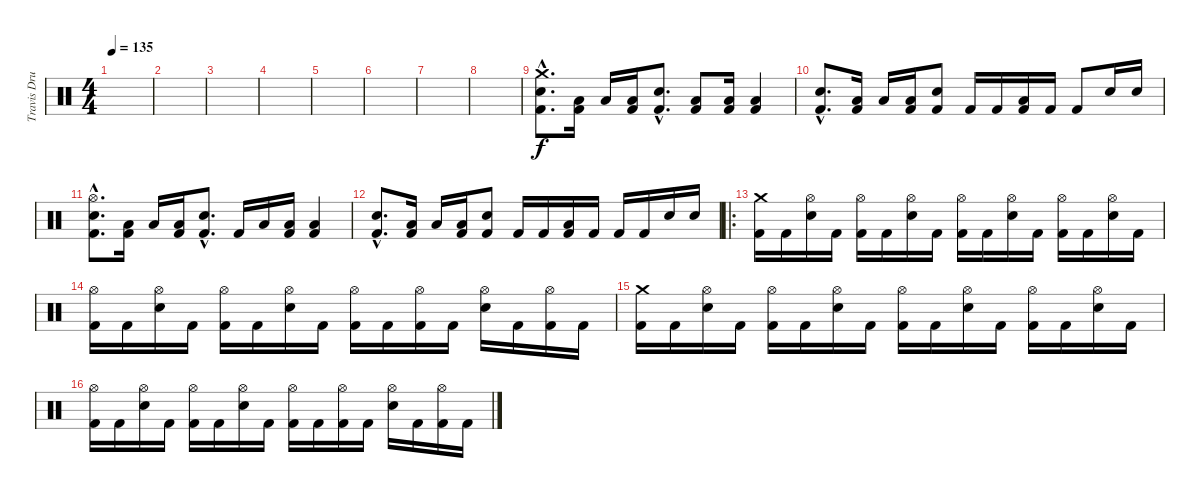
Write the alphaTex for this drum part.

\track ("Travis Drums" "Travis Dru") {instrument percussion}
\staff {score}
\articulation defaults
\ts (4 4)
\tempo 135
\clef neutral
\ks c
|
|
|
|
|
|
|
|
("Crash medium (hit)"{hac} "Electric Snare (hit)"{hac} "Kick (hit) 2"{hac}).8{d} ("Low Floor Tom (hit)" "Kick (hit) 2").16 "Low Floor Tom (hit)".16 ("Low Floor Tom (hit)" "Kick (hit) 2").16 ("Electric Snare (hit)"{hac} "Kick (hit) 2"{hac}).8{d} ("Low Floor Tom (hit)" "Kick (hit) 2").8 ("Low Floor Tom (hit)" "Kick (hit) 2").16 ("Low Floor Tom (hit)" "Kick (hit) 2").4 |
("Electric Snare (hit)"{hac} "Kick (hit) 2"{hac}).8{d} ("Low Floor Tom (hit)" "Kick (hit) 2").16 "Low Floor Tom (hit)".16 ("Low Floor Tom (hit)" "Kick (hit) 2").16 ("Electric Snare (hit)" "Kick (hit) 2").8 "Kick (hit) 2".16 "Kick (hit) 2".16 ("Low Floor Tom (hit)" "Kick (hit) 2").16 "Kick (hit) 2".16 "Kick (hit) 2".8 "Electric Snare (hit)".16 "Electric Snare (hit)".16 |
("Hi-Hat (open)"{hac} "Electric Snare (hit)"{hac} "Kick (hit) 2"{hac}).8{d} ("Low Floor Tom (hit)" "Kick (hit) 2").16 "Low Floor Tom (hit)".16 ("Low Floor Tom (hit)" "Kick (hit) 2").16 ("Electric Snare (hit)"{hac} "Kick (hit) 2"{hac}).8{d} "Kick (hit) 2".16 "Low Floor Tom (hit)".16 ("Low Floor Tom (hit)" "Kick (hit) 2").16 ("Low Floor Tom (hit)" "Kick (hit) 2").4 |
("Electric Snare (hit)"{hac} "Kick (hit) 2"{hac}).8{d} ("Low Floor Tom (hit)" "Kick (hit) 2").16 "Low Floor Tom (hit)".16 ("Low Floor Tom (hit)" "Kick (hit) 2").16 ("Electric Snare (hit)" "Kick (hit) 2").8 "Kick (hit) 2".16 "Kick (hit) 2".16 ("Low Floor Tom (hit)" "Kick (hit) 2").16 "Kick (hit) 2".16 "Kick (hit) 2".16 "Kick (hit) 2".16 "Electric Snare (hit)".16 "Electric Snare (hit)".16 |
\ro
("Crash medium (hit)" "Kick (hit) 2").16 "Kick (hit) 2".16 ("Hi-Hat (open)" "Electric Snare (hit)").16 "Kick (hit) 2".16 ("Hi-Hat (open)" "Kick (hit) 2").16 "Kick (hit) 2".16 ("Hi-Hat (open)" "Electric Snare (hit)").16 "Kick (hit) 2".16 ("Hi-Hat (open)" "Kick (hit) 2").16 "Kick (hit) 2".16 ("Hi-Hat (open)" "Electric Snare (hit)").16 "Kick (hit) 2".16 ("Hi-Hat (open)" "Kick (hit) 2").16 "Kick (hit) 2".16 ("Hi-Hat (open)" "Electric Snare (hit)").16 "Kick (hit) 2".16 |
("Hi-Hat (open)" "Kick (hit) 2").16 "Kick (hit) 2".16 ("Hi-Hat (open)" "Electric Snare (hit)").16 "Kick (hit) 2".16 ("Hi-Hat (open)" "Kick (hit) 2").16 "Kick (hit) 2".16 ("Hi-Hat (open)" "Electric Snare (hit)").16 "Kick (hit) 2".16 ("Hi-Hat (open)" "Kick (hit) 2").16 "Kick (hit) 2".16 ("Hi-Hat (open)" "Kick (hit) 2").16 "Kick (hit) 2".16 ("Hi-Hat (open)" "Electric Snare (hit)").16 "Kick (hit) 2".16 ("Hi-Hat (open)" "Kick (hit) 2").16 "Kick (hit) 2".16 |
("Crash medium (hit)" "Kick (hit) 2").16 "Kick (hit) 2".16 ("Hi-Hat (open)" "Electric Snare (hit)").16 "Kick (hit) 2".16 ("Hi-Hat (open)" "Kick (hit) 2").16 "Kick (hit) 2".16 ("Hi-Hat (open)" "Electric Snare (hit)").16 "Kick (hit) 2".16 ("Hi-Hat (open)" "Kick (hit) 2").16 "Kick (hit) 2".16 ("Hi-Hat (open)" "Electric Snare (hit)").16 "Kick (hit) 2".16 ("Hi-Hat (open)" "Kick (hit) 2").16 "Kick (hit) 2".16 ("Hi-Hat (open)" "Electric Snare (hit)").16 "Kick (hit) 2".16 |
("Hi-Hat (open)" "Kick (hit) 2").16 "Kick (hit) 2".16 ("Hi-Hat (open)" "Electric Snare (hit)").16 "Kick (hit) 2".16 ("Hi-Hat (open)" "Kick (hit) 2").16 "Kick (hit) 2".16 ("Hi-Hat (open)" "Electric Snare (hit)").16 "Kick (hit) 2".16 ("Hi-Hat (open)" "Kick (hit) 2").16 "Kick (hit) 2".16 ("Hi-Hat (open)" "Kick (hit) 2").16 "Kick (hit) 2".16 ("Hi-Hat (open)" "Electric Snare (hit)").16 "Kick (hit) 2".16 ("Hi-Hat (open)" "Kick (hit) 2").16 "Kick (hit) 2".16
